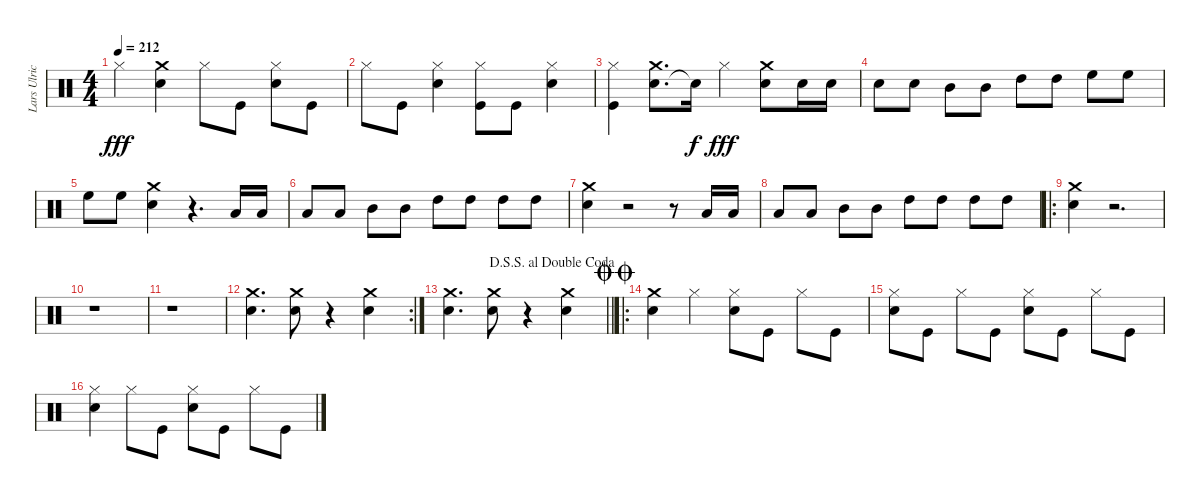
\track ("Lars Ulrich" "Lars Ulric") {instrument percussion}
\staff {score}
\articulation defaults
\ts (4 4)
\tempo 212
\clef neutral
\ks c "Hi-Hat (closed)".4{dy fff}
("Crash medium (hit)" "Snare (hit) 2").4 "Hi-Hat (closed)".8 "Kick (hit)".8 ("Snare (hit) 2" "Hi-Hat (closed)").8 "Kick (hit)".8 |
"Hi-Hat (closed)".8 "Kick (hit)".8 ("Snare (hit) 2" "Hi-Hat (closed)").4 ("Kick (hit)" "Hi-Hat (closed)").8 "Kick (hit)".8 ("Snare (hit) 2" "Hi-Hat (closed)").4 |
("Kick (hit)" "Hi-Hat (closed)").4 ("Snare (hit) 2" "Crash medium (hit)").8{d} "Snare (hit)"{t}.16{dy f} "Hi-Hat (closed)".4{dy fff} ("Snare (hit) 2" "Crash medium (hit)").8 "Snare (hit) 2".16 "Snare (hit) 2".16 |
"Snare (hit) 2".8 "Snare (hit) 2".8 "Mid Tom (hit)".8 "Mid Tom (hit)".8 "High Tom (hit)".8 "High Tom (hit)".8 "High Floor Tom (hit)".8 "High Floor Tom (hit)".8 |
"High Floor Tom (hit)".8 "High Floor Tom (hit)".8 ("Snare (hit) 2" "Crash medium (hit)").4 r.4{d} "Low Tom (hit)".16 "Low Tom (hit)".16 |
"Low Tom (hit)".8 "Low Tom (hit)".8 "Mid Tom (hit)".8 "Mid Tom (hit)".8 "High Tom (hit)".8 "High Tom (hit)".8 "High Tom (hit)".8 "High Tom (hit)".8 |
("Snare (hit) 2" "Crash medium (hit)").4 r.2 r.8 "Low Tom (hit)".16 "Low Tom (hit)".16 |
"Low Tom (hit)".8 "Low Tom (hit)".8 "Mid Tom (hit)".8 "Mid Tom (hit)".8 "High Tom (hit)".8 "High Tom (hit)".8 "High Tom (hit)".8 "High Tom (hit)".8 |
\ro
("Snare (hit) 2" "Crash medium (hit)").4 r.2{d} |
r.1 |
r.1 |
\rc 2
("Snare (hit) 2" "Crash medium (hit)").4{d} ("Snare (hit) 2" "Crash medium (hit)").8 r.4 ("Crash medium (hit)" "Snare (hit) 2").4 |
\jump dalsegnosegnoaldoublecoda
\barLineRight lightlight
("Snare (hit) 2" "Crash medium (hit)").4{d} ("Snare (hit) 2" "Crash medium (hit)").8 r.4 ("Snare (hit) 2" "Crash medium (hit)").4 |
\ro
\jump doublecoda
("Snare (hit) 2" "Crash medium (hit)").4 "Hi-Hat (closed)".4 ("Snare (hit) 2" "Hi-Hat (closed)").8 "Kick (hit)".8 "Hi-Hat (closed)".8 "Kick (hit)".8 |
("Snare (hit) 2" "Hi-Hat (closed)").8 "Kick (hit)".8 "Hi-Hat (closed)".8 "Kick (hit)".8 ("Snare (hit) 2" "Hi-Hat (closed)").8 "Kick (hit)".8 "Hi-Hat (closed)".8 "Kick (hit)".8 |
("Snare (hit) 2" "Hi-Hat (closed)").4 "Hi-Hat (closed)".8 "Kick (hit)".8 ("Snare (hit) 2" "Hi-Hat (closed)").8 "Kick (hit)".8 "Hi-Hat (closed)".8 "Kick (hit)".8
